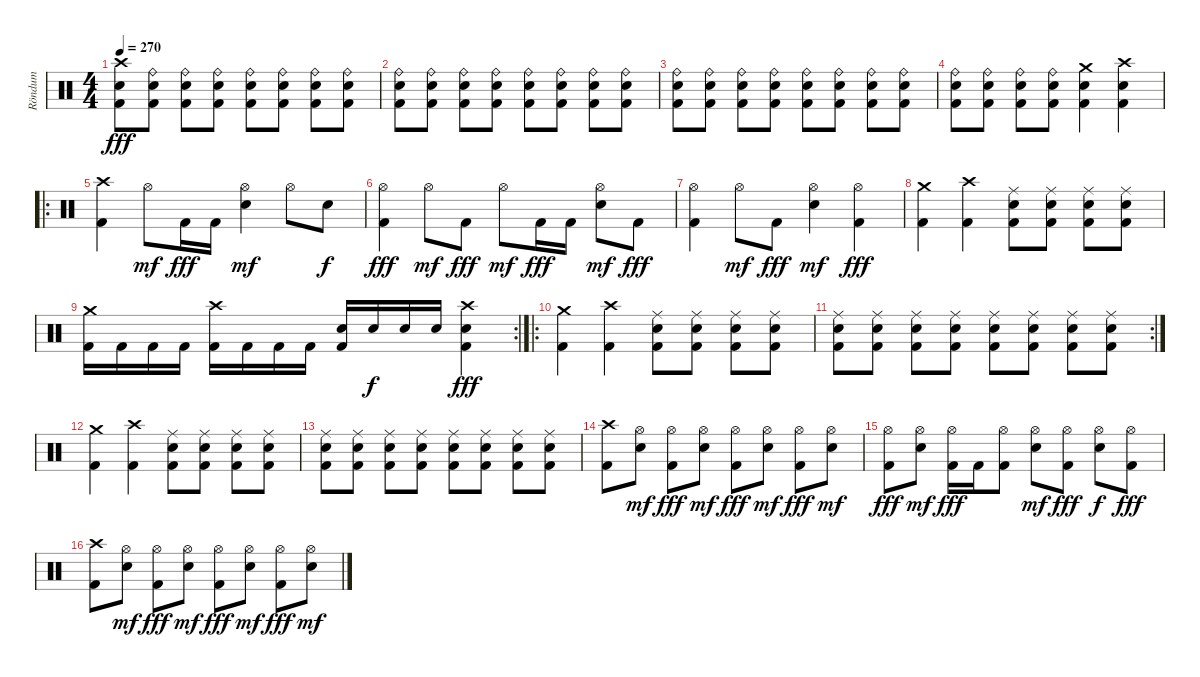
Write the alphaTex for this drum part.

\track ("Röndum" "Röndum") {instrument percussion}
\staff {score}
\articulation defaults
\ts (4 4)
\tempo 270
\clef neutral
\ks c
("Crash high (hit)" "Snare (hit) 2" "Kick (hit) 2").8{dy fff} ("Ride (bell)" "Snare (hit) 2" "Kick (hit) 2").8 ("Ride (bell)" "Snare (hit) 2" "Kick (hit) 2").8 ("Ride (bell)" "Snare (hit) 2" "Kick (hit) 2").8 ("Ride (bell)" "Snare (hit) 2" "Kick (hit) 2").8 ("Ride (bell)" "Snare (hit) 2" "Kick (hit) 2").8 ("Ride (bell)" "Snare (hit) 2" "Kick (hit) 2").8 ("Ride (bell)" "Snare (hit) 2" "Kick (hit) 2").8 |
("Ride (bell)" "Snare (hit) 2" "Kick (hit) 2").8 ("Ride (bell)" "Snare (hit) 2" "Kick (hit) 2").8 ("Ride (bell)" "Snare (hit) 2" "Kick (hit) 2").8 ("Ride (bell)" "Snare (hit) 2" "Kick (hit) 2").8 ("Ride (bell)" "Snare (hit) 2" "Kick (hit) 2").8 ("Ride (bell)" "Snare (hit) 2" "Kick (hit) 2").8 ("Ride (bell)" "Snare (hit) 2" "Kick (hit) 2").8 ("Ride (bell)" "Snare (hit) 2" "Kick (hit) 2").8 |
("Ride (bell)" "Snare (hit) 2" "Kick (hit) 2").8 ("Ride (bell)" "Snare (hit) 2" "Kick (hit) 2").8 ("Ride (bell)" "Snare (hit) 2" "Kick (hit) 2").8 ("Ride (bell)" "Snare (hit) 2" "Kick (hit) 2").8 ("Ride (bell)" "Snare (hit) 2" "Kick (hit) 2").8 ("Ride (bell)" "Snare (hit) 2" "Kick (hit) 2").8 ("Ride (bell)" "Snare (hit) 2" "Kick (hit) 2").8 ("Ride (bell)" "Snare (hit) 2" "Kick (hit) 2").8 |
("Ride (bell)" "Snare (hit) 2" "Kick (hit) 2").8 ("Ride (bell)" "Snare (hit) 2" "Kick (hit) 2").8 ("Ride (bell)" "Snare (hit) 2" "Kick (hit) 2").8 ("Ride (bell)" "Snare (hit) 2" "Kick (hit) 2").8 ("Crash medium (hit)" "Snare (hit) 2" "Kick (hit) 2").4 ("Crash high (hit)" "Snare (hit) 2" "Kick (hit) 2").4 |
\ro
("Crash high (hit)" "Kick (hit) 2").4 "Hi-Hat (open)".8{dy mf} "Kick (hit) 2".16{dy fff} "Kick (hit) 2".16 ("Hi-Hat (open)" "Snare (hit) 2").4{dy mf} "Hi-Hat (open)".8 "Snare (hit) 2".8{dy f} |
("Hi-Hat (open)" "Kick (hit) 2").4{dy fff} "Hi-Hat (open)".8{dy mf} "Kick (hit) 2".8{dy fff} "Hi-Hat (open)".8{dy mf} "Kick (hit) 2".16{dy fff} "Kick (hit) 2".16 ("Hi-Hat (open)" "Snare (hit) 2").8{dy mf} "Kick (hit) 2".8{dy fff} |
("Hi-Hat (open)" "Kick (hit) 2").4 "Hi-Hat (open)".8{dy mf} "Kick (hit) 2".8{dy fff} ("Hi-Hat (open)" "Snare (hit) 2").4{dy mf} ("Hi-Hat (open)" "Kick (hit) 2").4{dy fff} |
("Crash medium (hit)" "Kick (hit) 2").4 ("Crash high (hit)" "Kick (hit) 2").4 ("Ride (middle)" "Snare (hit) 2" "Kick (hit) 2").8 ("Ride (middle)" "Snare (hit) 2" "Kick (hit) 2").8 ("Ride (middle)" "Snare (hit) 2" "Kick (hit) 2").8 ("Ride (middle)" "Snare (hit) 2" "Kick (hit) 2").8 |
\rc 2
("Crash medium (hit)" "Kick (hit) 2").16 "Kick (hit) 2".16 "Kick (hit) 2".16 "Kick (hit) 2".16 ("Crash high (hit)" "Kick (hit) 2").16 "Kick (hit) 2".16 "Kick (hit) 2".16 "Kick (hit) 2".16 ("Snare (hit) 2" "Kick (hit) 2").16 "Snare (hit) 2".16{dy f} "Snare (hit) 2".16 "Snare (hit) 2".16 ("Crash high (hit)" "Snare (hit) 2" "Kick (hit) 2").4{dy fff} |
\ro
("Crash medium (hit)" "Kick (hit) 2").4 ("Crash high (hit)" "Kick (hit) 2").4 ("Ride (middle)" "Snare (hit) 2" "Kick (hit) 2").8 ("Ride (middle)" "Snare (hit) 2" "Kick (hit) 2").8 ("Ride (middle)" "Snare (hit) 2" "Kick (hit) 2").8 ("Ride (middle)" "Snare (hit) 2" "Kick (hit) 2").8 |
\rc 2
("Ride (middle)" "Snare (hit) 2" "Kick (hit) 2").8 ("Ride (middle)" "Snare (hit) 2" "Kick (hit) 2").8 ("Ride (middle)" "Snare (hit) 2" "Kick (hit) 2").8 ("Ride (middle)" "Snare (hit) 2" "Kick (hit) 2").8 ("Ride (middle)" "Snare (hit) 2" "Kick (hit) 2").8 ("Ride (middle)" "Snare (hit) 2" "Kick (hit) 2").8 ("Ride (middle)" "Snare (hit) 2" "Kick (hit) 2").8 ("Ride (middle)" "Snare (hit) 2" "Kick (hit) 2").8 |
("Crash medium (hit)" "Kick (hit) 2").4 ("Crash high (hit)" "Kick (hit) 2").4 ("Ride (middle)" "Snare (hit) 2" "Kick (hit) 2").8 ("Ride (middle)" "Snare (hit) 2" "Kick (hit) 2").8 ("Ride (middle)" "Snare (hit) 2" "Kick (hit) 2").8 ("Ride (middle)" "Snare (hit) 2" "Kick (hit) 2").8 |
("Ride (middle)" "Snare (hit) 2" "Kick (hit) 2").8 ("Ride (middle)" "Snare (hit) 2" "Kick (hit) 2").8 ("Ride (middle)" "Snare (hit) 2" "Kick (hit) 2").8 ("Ride (middle)" "Snare (hit) 2" "Kick (hit) 2").8 ("Ride (middle)" "Snare (hit) 2" "Kick (hit) 2").8 ("Ride (middle)" "Snare (hit) 2" "Kick (hit) 2").8 ("Ride (middle)" "Snare (hit) 2" "Kick (hit) 2").8 ("Ride (middle)" "Snare (hit) 2" "Kick (hit) 2").8 |
("Crash high (hit)" "Kick (hit) 2").8 ("Hi-Hat (open)" "Snare (hit) 2").8{dy mf} ("Hi-Hat (open)" "Kick (hit) 2").8{dy fff} ("Hi-Hat (open)" "Snare (hit) 2").8{dy mf} ("Hi-Hat (open)" "Kick (hit) 2").8{dy fff} ("Hi-Hat (open)" "Snare (hit) 2").8{dy mf} ("Hi-Hat (open)" "Kick (hit) 2").8{dy fff} ("Hi-Hat (open)" "Snare (hit) 2").8{dy mf} |
("Hi-Hat (open)" "Kick (hit) 2").8{dy fff} ("Hi-Hat (open)" "Snare (hit) 2").8{dy mf} ("Hi-Hat (open)" "Kick (hit) 2").16{dy fff} "Kick (hit) 2".16 ("Hi-Hat (open)" "Kick (hit) 2").8 ("Hi-Hat (open)" "Snare (hit) 2").8{dy mf} ("Hi-Hat (open)" "Kick (hit) 2").8{dy fff} ("Hi-Hat (open)" "Snare (hit) 2").8{dy f} ("Hi-Hat (open)" "Kick (hit) 2").8{dy fff} |
("Crash high (hit)" "Kick (hit) 2").8 ("Hi-Hat (open)" "Snare (hit) 2").8{dy mf} ("Hi-Hat (open)" "Kick (hit) 2").8{dy fff} ("Hi-Hat (open)" "Snare (hit) 2").8{dy mf} ("Hi-Hat (open)" "Kick (hit) 2").8{dy fff} ("Hi-Hat (open)" "Snare (hit) 2").8{dy mf} ("Hi-Hat (open)" "Kick (hit) 2").8{dy fff} ("Hi-Hat (open)" "Snare (hit) 2").8{dy mf}
